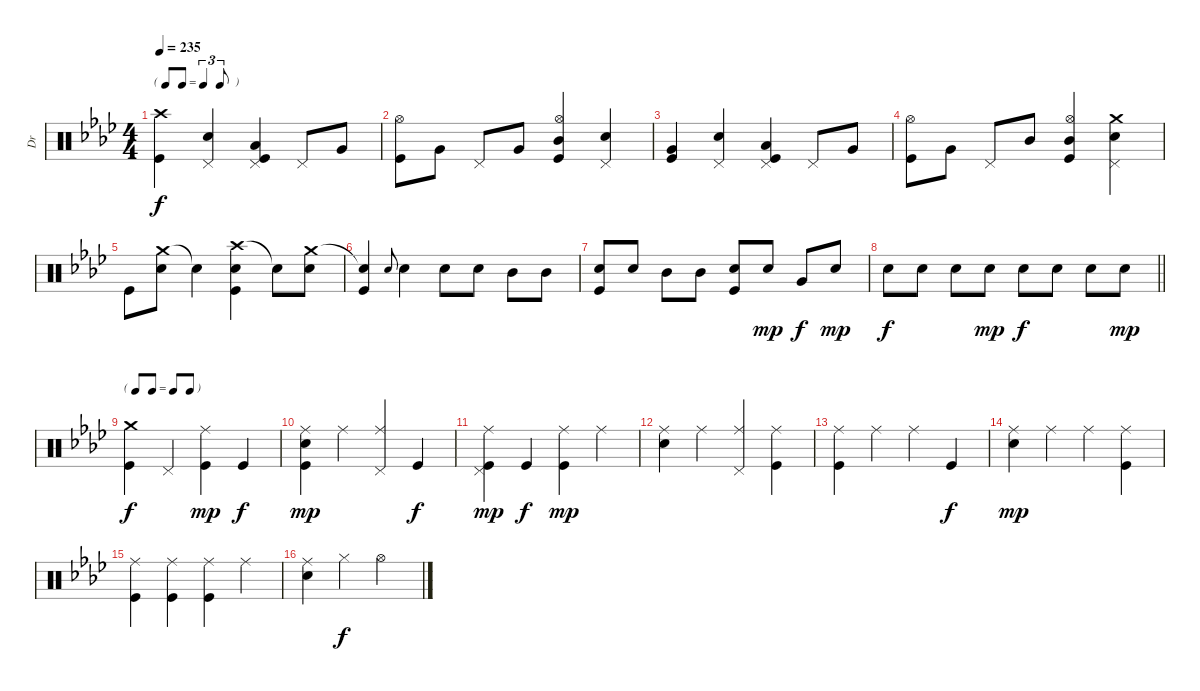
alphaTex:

\track ("Dr" "Dr") {instrument percussion}
\staff {score}
\articulation defaults
\ts (4 4)
\tf triplet8th
\tempo 235
\clef neutral
\ks ab
("Crash high (hit)" "Kick (hit)").4{dy f} ("Electric Snare (hit)" "Pedal Hi-Hat (hit)").4 ("Low Floor Tom (hit)" "Kick (hit)" "Pedal Hi-Hat (hit)").4 "Pedal Hi-Hat (hit)".8 "Very Low Tom (hit)".8 |
("Kick (hit)" "Hi-Hat (open)").8 "Very Low Tom (hit)".8 "Pedal Hi-Hat (hit)".8 "Very Low Tom (hit)".8 ("Mid Tom (hit)" "Kick (hit)" "Hi-Hat (open)").4 ("Electric Snare (hit)" "Pedal Hi-Hat (hit)").4 |
("Very Low Tom (hit)" "Kick (hit)").4 ("Electric Snare (hit)" "Pedal Hi-Hat (hit)").4 ("Low Floor Tom (hit)" "Kick (hit)" "Pedal Hi-Hat (hit)").4 "Pedal Hi-Hat (hit)".8 "Very Low Tom (hit)".8 |
("Kick (hit)" "Hi-Hat (open)").8 "Very Low Tom (hit)".8 "Pedal Hi-Hat (hit)".8 "Mid Tom (hit)".8 ("Mid Tom (hit)" "Kick (hit)" "Hi-Hat (open)").4 ("Crash medium (hit)" "Electric Snare (hit)" "Pedal Hi-Hat (hit)").4 |
"Kick (hit)".8 ("Crash medium (hit)" "Electric Snare (hit)").8 "Snare (hit)"{t}.4 ("Crash high (hit)" "Electric Snare (hit)" "Kick (hit)").4 "Snare (hit)"{t}.8 ("Crash medium (hit)" "Electric Snare (hit)").8 |
("Snare (hit)"{t} "Kick (hit)").4 "Electric Snare (hit)".8{gr onbeat} "Electric Snare (hit)".4 "Electric Snare (hit)".8 "Electric Snare (hit)".8 "Mid Tom (hit)".8 "Mid Tom (hit)".8 |
("Electric Snare (hit)" "Kick (hit)").8 "Electric Snare (hit)".8 "Mid Tom (hit)".8 "Mid Tom (hit)".8 ("Electric Snare (hit)" "Kick (hit)").8 "Electric Snare (hit)".8{dy mp} "Very Low Tom (hit)".8{dy f} "Electric Snare (hit)".8{dy mp} |
\barLineRight lightlight "Electric Snare (hit)".8{dy f} "Electric Snare (hit)".8 "Electric Snare (hit)".8 "Electric Snare (hit)".8{dy mp} "Electric Snare (hit)".8{dy f} "Electric Snare (hit)".8 "Electric Snare (hit)".8 "Electric Snare (hit)".8{dy mp}
|
\tf none
\section ("" "")
("Crash medium (hit)" "Kick (hit)").4{dy f} "Pedal Hi-Hat (hit)".4 ("Ride (middle)" "Kick (hit)").4{dy mp} "Kick (hit)".4{dy f} |
("Ride (middle)" "Electric Snare (hit)" "Kick (hit)").4{dy mp} "Ride (middle)".4 ("Ride (middle)" "Pedal Hi-Hat (hit)").4 "Kick (hit)".4{dy f} |
("Ride (middle)" "Kick (hit)" "Pedal Hi-Hat (hit)").4{dy mp} "Kick (hit)".4{dy f} ("Ride (middle)" "Kick (hit)").4{dy mp} "Ride (middle)".4 |
("Ride (middle)" "Electric Snare (hit)").4 "Ride (middle)".4 ("Ride (middle)" "Pedal Hi-Hat (hit)").4 ("Ride (middle)" "Kick (hit)").4 |
("Ride (middle)" "Kick (hit)").4 "Ride (middle)".4 "Ride (middle)".4 "Kick (hit)".4{dy f} |
("Ride (middle)" "Electric Snare (hit)").4{dy mp} "Ride (middle)".4 "Ride (middle)".4 ("Ride (middle)" "Kick (hit)").4 |
("Ride (middle)" "Kick (hit)").4 ("Ride (middle)" "Kick (hit)").4 ("Ride (middle)" "Kick (hit)").4 "Ride (middle)".4 |
("Ride (middle)" "Electric Snare (hit)").4 "Hi-Hat (closed)".4{dy f} "Hi-Hat (open)".2
